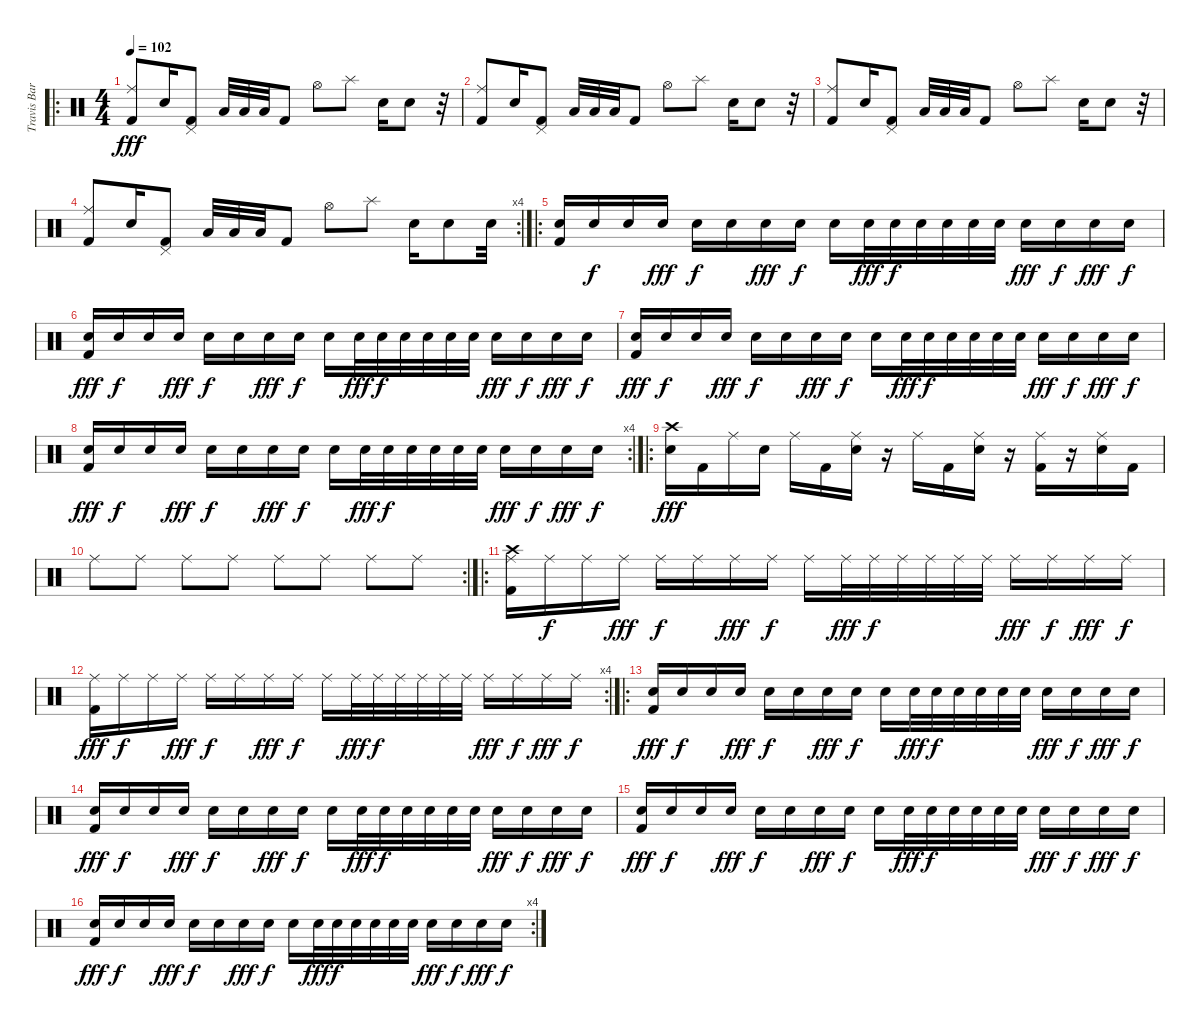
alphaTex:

\track ("Travis Barker" "Travis Bar") {instrument percussion}
\staff {score}
\articulation defaults
\ro
\ts (4 4)
\tempo 102
\clef neutral
\ks c
("Ride (middle)" "Kick (hit) 2").8{dy fff} "Electric Snare (hit)".16 ("Pedal Hi-Hat (hit)" "Kick (hit) 2").8 "Low Tom (hit)".32 "Low Tom (hit)".32 "Low Tom (hit)".32 "Kick (hit) 2".8 "Hi-Hat (open)".8 "Splash (hit)".8 "Electric Snare (hit)".16 "Electric Snare (hit)".8 r.32 |
("Ride (middle)" "Kick (hit) 2").8 "Electric Snare (hit)".16 ("Pedal Hi-Hat (hit)" "Kick (hit) 2").8 "Low Tom (hit)".32 "Low Tom (hit)".32 "Low Tom (hit)".32 "Kick (hit) 2".8 "Hi-Hat (open)".8 "Splash (hit)".8 "Electric Snare (hit)".16 "Electric Snare (hit)".8 r.32 |
("Ride (middle)" "Kick (hit) 2").8 "Electric Snare (hit)".16 ("Pedal Hi-Hat (hit)" "Kick (hit) 2").8 "Low Tom (hit)".32 "Low Tom (hit)".32 "Low Tom (hit)".32 "Kick (hit) 2".8 "Hi-Hat (open)".8 "Splash (hit)".8 "Electric Snare (hit)".16 "Electric Snare (hit)".8 r.32 |
\rc 4
("Ride (middle)" "Kick (hit) 2").8 "Electric Snare (hit)".16 ("Pedal Hi-Hat (hit)" "Kick (hit) 2").8 "Low Tom (hit)".32 "Low Tom (hit)".32 "Low Tom (hit)".32 "Kick (hit) 2".8 "Hi-Hat (open)".8 "Splash (hit)".8 "Electric Snare (hit)".16 "Electric Snare (hit)".8 "Electric Snare (hit)".32 |
\ro
("Electric Snare (hit)" "Kick (hit) 2").16 "Electric Snare (hit)".16{dy f} "Electric Snare (hit)".16 "Electric Snare (hit)".16{dy fff} "Electric Snare (hit)".16{dy f} "Electric Snare (hit)".16 "Electric Snare (hit)".16{dy fff} "Electric Snare (hit)".16{dy f} "Electric Snare (hit)".16 "Electric Snare (hit)".32{dy fff} "Electric Snare (hit)".32{dy f} "Electric Snare (hit)".32 "Electric Snare (hit)".32 "Electric Snare (hit)".32 "Electric Snare (hit)".32 "Electric Snare (hit)".16{dy fff} "Electric Snare (hit)".16{dy f} "Electric Snare (hit)".16{dy fff} "Electric Snare (hit)".16{dy f} |
("Electric Snare (hit)" "Kick (hit) 2").16{dy fff} "Electric Snare (hit)".16{dy f} "Electric Snare (hit)".16 "Electric Snare (hit)".16{dy fff} "Electric Snare (hit)".16{dy f} "Electric Snare (hit)".16 "Electric Snare (hit)".16{dy fff} "Electric Snare (hit)".16{dy f} "Electric Snare (hit)".16 "Electric Snare (hit)".32{dy fff} "Electric Snare (hit)".32{dy f} "Electric Snare (hit)".32 "Electric Snare (hit)".32 "Electric Snare (hit)".32 "Electric Snare (hit)".32 "Electric Snare (hit)".16{dy fff} "Electric Snare (hit)".16{dy f} "Electric Snare (hit)".16{dy fff} "Electric Snare (hit)".16{dy f} |
("Electric Snare (hit)" "Kick (hit) 2").16{dy fff} "Electric Snare (hit)".16{dy f} "Electric Snare (hit)".16 "Electric Snare (hit)".16{dy fff} "Electric Snare (hit)".16{dy f} "Electric Snare (hit)".16 "Electric Snare (hit)".16{dy fff} "Electric Snare (hit)".16{dy f} "Electric Snare (hit)".16 "Electric Snare (hit)".32{dy fff} "Electric Snare (hit)".32{dy f} "Electric Snare (hit)".32 "Electric Snare (hit)".32 "Electric Snare (hit)".32 "Electric Snare (hit)".32 "Electric Snare (hit)".16{dy fff} "Electric Snare (hit)".16{dy f} "Electric Snare (hit)".16{dy fff} "Electric Snare (hit)".16{dy f} |
\rc 4
("Electric Snare (hit)" "Kick (hit) 2").16{dy fff} "Electric Snare (hit)".16{dy f} "Electric Snare (hit)".16 "Electric Snare (hit)".16{dy fff} "Electric Snare (hit)".16{dy f} "Electric Snare (hit)".16 "Electric Snare (hit)".16{dy fff} "Electric Snare (hit)".16{dy f} "Electric Snare (hit)".16 "Electric Snare (hit)".32{dy fff} "Electric Snare (hit)".32{dy f} "Electric Snare (hit)".32 "Electric Snare (hit)".32 "Electric Snare (hit)".32 "Electric Snare (hit)".32 "Electric Snare (hit)".16{dy fff} "Electric Snare (hit)".16{dy f} "Electric Snare (hit)".16{dy fff} "Electric Snare (hit)".16{dy f} |
\ro
("Crash high (hit)" "Electric Snare (hit)").16{dy fff} "Kick (hit) 2".16 "Ride (middle)".16 "Electric Snare (hit)".16 "Ride (middle)".16 "Kick (hit) 2".16 ("Ride (middle)" "Electric Snare (hit)").16 r.16 "Ride (middle)".16 "Kick (hit) 2".16 ("Ride (middle)" "Electric Snare (hit)").16 r.16 ("Ride (middle)" "Kick (hit) 2").16 r.16 ("Ride (middle)" "Electric Snare (hit)").16 "Kick (hit) 2".16 |
\rc 2 "Ride (middle)".8 "Ride (middle)".8 "Ride (middle)".8 "Ride (middle)".8 "Ride (middle)".8 "Ride (middle)".8 "Ride (middle)".8 "Ride (middle)".8
|
\ro
("Crash high (hit)" "Ride (middle)" "Kick (hit) 2").16 "Ride (middle)".16{dy f} "Ride (middle)".16 "Ride (middle)".16{dy fff} "Ride (middle)".16{dy f} "Ride (middle)".16 "Ride (middle)".16{dy fff} "Ride (middle)".16{dy f} "Ride (middle)".16 "Ride (middle)".32{dy fff} "Ride (middle)".32{dy f} "Ride (middle)".32 "Ride (middle)".32 "Ride (middle)".32 "Ride (middle)".32 "Ride (middle)".16{dy fff} "Ride (middle)".16{dy f} "Ride (middle)".16{dy fff} "Ride (middle)".16{dy f} |
\rc 4
("Ride (middle)" "Kick (hit) 2").16{dy fff} "Ride (middle)".16{dy f} "Ride (middle)".16 "Ride (middle)".16{dy fff} "Ride (middle)".16{dy f} "Ride (middle)".16 "Ride (middle)".16{dy fff} "Ride (middle)".16{dy f} "Ride (middle)".16 "Ride (middle)".32{dy fff} "Ride (middle)".32{dy f} "Ride (middle)".32 "Ride (middle)".32 "Ride (middle)".32 "Ride (middle)".32 "Ride (middle)".16{dy fff} "Ride (middle)".16{dy f} "Ride (middle)".16{dy fff} "Ride (middle)".16{dy f} |
\ro
("Electric Snare (hit)" "Kick (hit) 2").16{dy fff} "Electric Snare (hit)".16{dy f} "Electric Snare (hit)".16 "Electric Snare (hit)".16{dy fff} "Electric Snare (hit)".16{dy f} "Electric Snare (hit)".16 "Electric Snare (hit)".16{dy fff} "Electric Snare (hit)".16{dy f} "Electric Snare (hit)".16 "Electric Snare (hit)".32{dy fff} "Electric Snare (hit)".32{dy f} "Electric Snare (hit)".32 "Electric Snare (hit)".32 "Electric Snare (hit)".32 "Electric Snare (hit)".32 "Electric Snare (hit)".16{dy fff} "Electric Snare (hit)".16{dy f} "Electric Snare (hit)".16{dy fff} "Electric Snare (hit)".16{dy f} |
("Electric Snare (hit)" "Kick (hit) 2").16{dy fff} "Electric Snare (hit)".16{dy f} "Electric Snare (hit)".16 "Electric Snare (hit)".16{dy fff} "Electric Snare (hit)".16{dy f} "Electric Snare (hit)".16 "Electric Snare (hit)".16{dy fff} "Electric Snare (hit)".16{dy f} "Electric Snare (hit)".16 "Electric Snare (hit)".32{dy fff} "Electric Snare (hit)".32{dy f} "Electric Snare (hit)".32 "Electric Snare (hit)".32 "Electric Snare (hit)".32 "Electric Snare (hit)".32 "Electric Snare (hit)".16{dy fff} "Electric Snare (hit)".16{dy f} "Electric Snare (hit)".16{dy fff} "Electric Snare (hit)".16{dy f} |
("Electric Snare (hit)" "Kick (hit) 2").16{dy fff} "Electric Snare (hit)".16{dy f} "Electric Snare (hit)".16 "Electric Snare (hit)".16{dy fff} "Electric Snare (hit)".16{dy f} "Electric Snare (hit)".16 "Electric Snare (hit)".16{dy fff} "Electric Snare (hit)".16{dy f} "Electric Snare (hit)".16 "Electric Snare (hit)".32{dy fff} "Electric Snare (hit)".32{dy f} "Electric Snare (hit)".32 "Electric Snare (hit)".32 "Electric Snare (hit)".32 "Electric Snare (hit)".32 "Electric Snare (hit)".16{dy fff} "Electric Snare (hit)".16{dy f} "Electric Snare (hit)".16{dy fff} "Electric Snare (hit)".16{dy f} |
\rc 4
("Electric Snare (hit)" "Kick (hit) 2").16{dy fff} "Electric Snare (hit)".16{dy f} "Electric Snare (hit)".16 "Electric Snare (hit)".16{dy fff} "Electric Snare (hit)".16{dy f} "Electric Snare (hit)".16 "Electric Snare (hit)".16{dy fff} "Electric Snare (hit)".16{dy f} "Electric Snare (hit)".16 "Electric Snare (hit)".32{dy fff} "Electric Snare (hit)".32{dy f} "Electric Snare (hit)".32 "Electric Snare (hit)".32 "Electric Snare (hit)".32 "Electric Snare (hit)".32 "Electric Snare (hit)".16{dy fff} "Electric Snare (hit)".16{dy f} "Electric Snare (hit)".16{dy fff} "Electric Snare (hit)".16{dy f}
